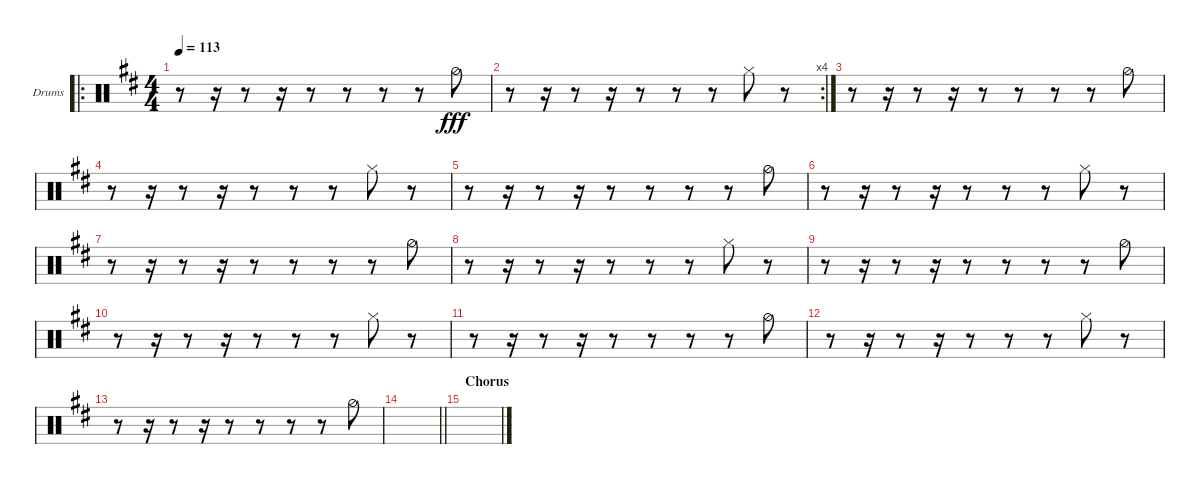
\bracketExtendMode groupsimilarinstruments
\firstSystemTrackNameOrientation horizontal
\otherSystemsTrackNameOrientation horizontal
\track ("Hihat" "Drums") {instrument percussion}
\staff {score}
\articulation defaults
\ro
\ts (4 4)
\beaming (8 2 2 2 2)
\tempo 113
\clef neutral
\scale
0.528
\ks d
r.8{dy fff} r.16 r.8 r.16 r.8 r.8 r.8 r.8 "Hi-Hat (half)".8 |
\rc 4
\scale
0.248 r.8 r.16 r.8 r.16 r.8 r.8 r.8 "Hi-Hat (closed)".8 r.8 |
\scale
0.224 r.8 r.16 r.8 r.16 r.8 r.8 r.8 r.8 "Hi-Hat (half)".8 |
\scale
0.333333 r.8 r.16 r.8 r.16 r.8 r.8 r.8 "Hi-Hat (closed)".8 r.8 |
\scale
0.333333 r.8 r.16 r.8 r.16 r.8 r.8 r.8 r.8 "Hi-Hat (half)".8 |
\scale
0.333333 r.8 r.16 r.8 r.16 r.8 r.8 r.8 "Hi-Hat (closed)".8 r.8 |
\scale
0.333333 r.8 r.16 r.8 r.16 r.8 r.8 r.8 r.8 "Hi-Hat (half)".8 |
\scale
0.333333 r.8 r.16 r.8 r.16 r.8 r.8 r.8 "Hi-Hat (closed)".8 r.8 |
\scale
0.333333 r.8 r.16 r.8 r.16 r.8 r.8 r.8 r.8 "Hi-Hat (half)".8 |
\scale
0.333333 r.8 r.16 r.8 r.16 r.8 r.8 r.8 "Hi-Hat (closed)".8 r.8 |
\scale
0.333333 r.8 r.16 r.8 r.16 r.8 r.8 r.8 r.8 "Hi-Hat (half)".8 |
\scale
0.333333 r.8 r.16 r.8 r.16 r.8 r.8 r.8 "Hi-Hat (closed)".8 r.8 |
\scale
0.333333 r.8 r.16 r.8 r.16 r.8 r.8 r.8 r.8 "Hi-Hat (half)".8 |
\scale
0.333333
\barLineRight lightlight
|
\section ("" "Chorus")
\scale
0.333333 |
\scale
0.333333
